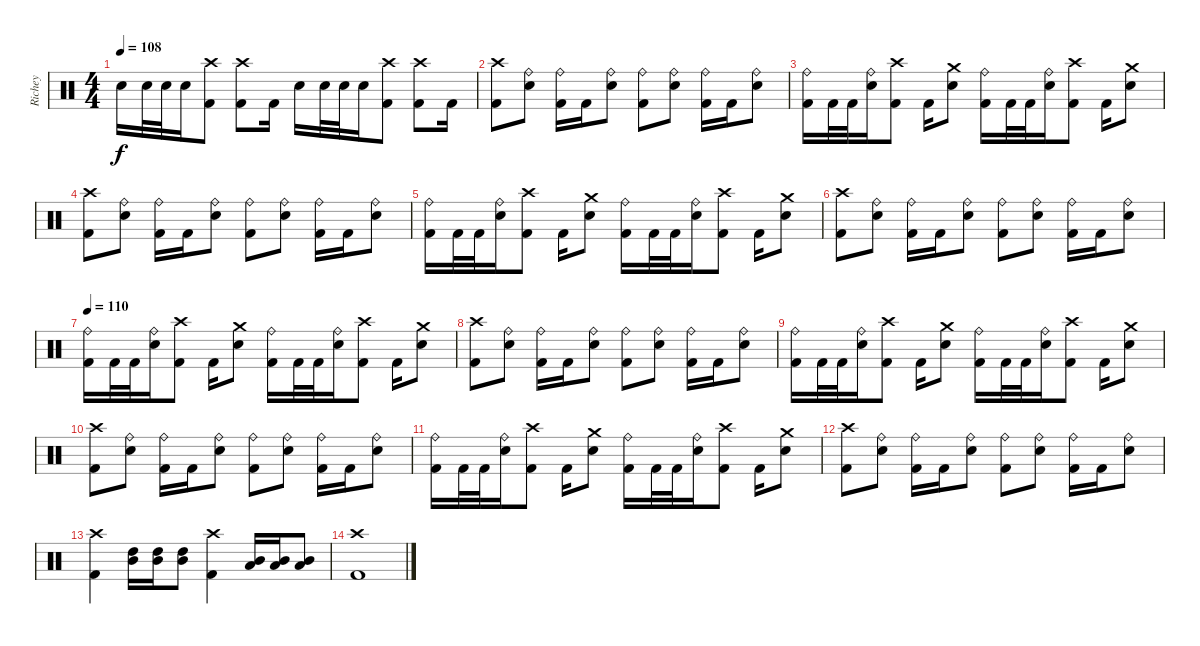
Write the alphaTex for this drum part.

\track ("Richey" "Richey") {instrument percussion}
\staff {score}
\articulation defaults
\ts (4 4)
\tempo 108
\clef neutral
\ks c "Snare (hit) 2".16{dy f} "Snare (hit) 2".32 "Snare (hit) 2".32 "Snare (hit) 2".16
("Crash high (hit)" "Kick (hit) 2").8 ("Crash high (hit)" "Kick (hit) 2").8 "Kick (hit) 2".16 "Snare (hit) 2".16 "Snare (hit) 2".32 "Snare (hit) 2".32 "Snare (hit) 2".16 ("Crash high (hit)" "Kick (hit) 2").8 ("Crash high (hit)" "Kick (hit) 2").8 "Kick (hit) 2".16 |
("Crash high (hit)" "Kick (hit) 2").8 ("Ride (bell)" "Snare (hit) 2").8 ("Ride (bell)" "Kick (hit) 2").16 "Kick (hit) 2".16 ("Ride (bell)" "Snare (hit) 2").8 ("Ride (bell)" "Kick (hit) 2").8 ("Ride (bell)" "Snare (hit) 2").8 ("Ride (bell)" "Kick (hit) 2").16 "Kick (hit) 2".16 ("Ride (bell)" "Snare (hit) 2").8 |
("Ride (bell)" "Kick (hit) 2").16 "Kick (hit) 2".32 "Kick (hit) 2".32 ("Ride (bell)" "Snare (hit) 2").16 ("Crash high (hit)" "Kick (hit) 2").8 "Kick (hit) 2".16 ("Crash medium (hit)" "Snare (hit) 2").8 ("Ride (bell)" "Kick (hit) 2").16 "Kick (hit) 2".32 "Kick (hit) 2".32 ("Ride (bell)" "Snare (hit) 2").16 ("Crash high (hit)" "Kick (hit) 2").8 "Kick (hit) 2".16 ("Crash medium (hit)" "Snare (hit) 2").8 |
("Crash high (hit)" "Kick (hit) 2").8 ("Ride (bell)" "Snare (hit) 2").8 ("Ride (bell)" "Kick (hit) 2").16 "Kick (hit) 2".16 ("Ride (bell)" "Snare (hit) 2").8 ("Ride (bell)" "Kick (hit) 2").8 ("Ride (bell)" "Snare (hit) 2").8 ("Ride (bell)" "Kick (hit) 2").16 "Kick (hit) 2".16 ("Ride (bell)" "Snare (hit) 2").8 |
("Ride (bell)" "Kick (hit) 2").16 "Kick (hit) 2".32 "Kick (hit) 2".32 ("Ride (bell)" "Snare (hit) 2").16 ("Crash high (hit)" "Kick (hit) 2").8 "Kick (hit) 2".16 ("Crash medium (hit)" "Snare (hit) 2").8 ("Ride (bell)" "Kick (hit) 2").16 "Kick (hit) 2".32 "Kick (hit) 2".32 ("Ride (bell)" "Snare (hit) 2").16 ("Crash high (hit)" "Kick (hit) 2").8 "Kick (hit) 2".16 ("Crash medium (hit)" "Snare (hit) 2").8 |
("Crash high (hit)" "Kick (hit) 2").8 ("Ride (bell)" "Snare (hit) 2").8 ("Ride (bell)" "Kick (hit) 2").16 "Kick (hit) 2".16 ("Ride (bell)" "Snare (hit) 2").8 ("Ride (bell)" "Kick (hit) 2").8 ("Ride (bell)" "Snare (hit) 2").8 ("Ride (bell)" "Kick (hit) 2").16 "Kick (hit) 2".16 ("Ride (bell)" "Snare (hit) 2").8 |
\tempo 110
("Ride (bell)" "Kick (hit) 2").16 "Kick (hit) 2".32 "Kick (hit) 2".32 ("Ride (bell)" "Snare (hit) 2").16 ("Crash high (hit)" "Kick (hit) 2").8 "Kick (hit) 2".16 ("Crash medium (hit)" "Snare (hit) 2").8 ("Ride (bell)" "Kick (hit) 2").16 "Kick (hit) 2".32 "Kick (hit) 2".32 ("Ride (bell)" "Snare (hit) 2").16 ("Crash high (hit)" "Kick (hit) 2").8 "Kick (hit) 2".16 ("Crash medium (hit)" "Snare (hit) 2").8 |
("Crash high (hit)" "Kick (hit) 2").8 ("Ride (bell)" "Snare (hit) 2").8 ("Ride (bell)" "Kick (hit) 2").16 "Kick (hit) 2".16 ("Ride (bell)" "Snare (hit) 2").8 ("Ride (bell)" "Kick (hit) 2").8 ("Ride (bell)" "Snare (hit) 2").8 ("Ride (bell)" "Kick (hit) 2").16 "Kick (hit) 2".16 ("Ride (bell)" "Snare (hit) 2").8 |
("Ride (bell)" "Kick (hit) 2").16 "Kick (hit) 2".32 "Kick (hit) 2".32 ("Ride (bell)" "Snare (hit) 2").16 ("Crash high (hit)" "Kick (hit) 2").8 "Kick (hit) 2".16 ("Crash medium (hit)" "Snare (hit) 2").8 ("Ride (bell)" "Kick (hit) 2").16 "Kick (hit) 2".32 "Kick (hit) 2".32 ("Ride (bell)" "Snare (hit) 2").16 ("Crash high (hit)" "Kick (hit) 2").8 "Kick (hit) 2".16 ("Crash medium (hit)" "Snare (hit) 2").8 |
("Crash high (hit)" "Kick (hit) 2").8 ("Ride (bell)" "Snare (hit) 2").8 ("Ride (bell)" "Kick (hit) 2").16 "Kick (hit) 2".16 ("Ride (bell)" "Snare (hit) 2").8 ("Ride (bell)" "Kick (hit) 2").8 ("Ride (bell)" "Snare (hit) 2").8 ("Ride (bell)" "Kick (hit) 2").16 "Kick (hit) 2".16 ("Ride (bell)" "Snare (hit) 2").8 |
("Ride (bell)" "Kick (hit) 2").16 "Kick (hit) 2".32 "Kick (hit) 2".32 ("Ride (bell)" "Snare (hit) 2").16 ("Crash high (hit)" "Kick (hit) 2").8 "Kick (hit) 2".16 ("Crash medium (hit)" "Snare (hit) 2").8 ("Ride (bell)" "Kick (hit) 2").16 "Kick (hit) 2".32 "Kick (hit) 2".32 ("Ride (bell)" "Snare (hit) 2").16 ("Crash high (hit)" "Kick (hit) 2").8 "Kick (hit) 2".16 ("Crash medium (hit)" "Snare (hit) 2").8 |
("Crash high (hit)" "Kick (hit) 2").8 ("Ride (bell)" "Snare (hit) 2").8 ("Ride (bell)" "Kick (hit) 2").16 "Kick (hit) 2".16 ("Ride (bell)" "Snare (hit) 2").8 ("Ride (bell)" "Kick (hit) 2").8 ("Ride (bell)" "Snare (hit) 2").8 ("Ride (bell)" "Kick (hit) 2").16 "Kick (hit) 2".16 ("Ride (bell)" "Snare (hit) 2").8 |
("Crash high (hit)" "Kick (hit) 2").4 ("High Tom (hit)" "Mid Tom (hit)").16 ("High Tom (hit)" "Mid Tom (hit)").16 ("High Tom (hit)" "Mid Tom (hit)").8 ("Crash high (hit)" "Kick (hit) 2").4 ("Mid Tom (hit)" "Low Tom (hit)").16 ("Mid Tom (hit)" "Low Tom (hit)").16 ("Mid Tom (hit)" "Low Tom (hit)").8 |
("Crash high (hit)" "Kick (hit) 2").1
